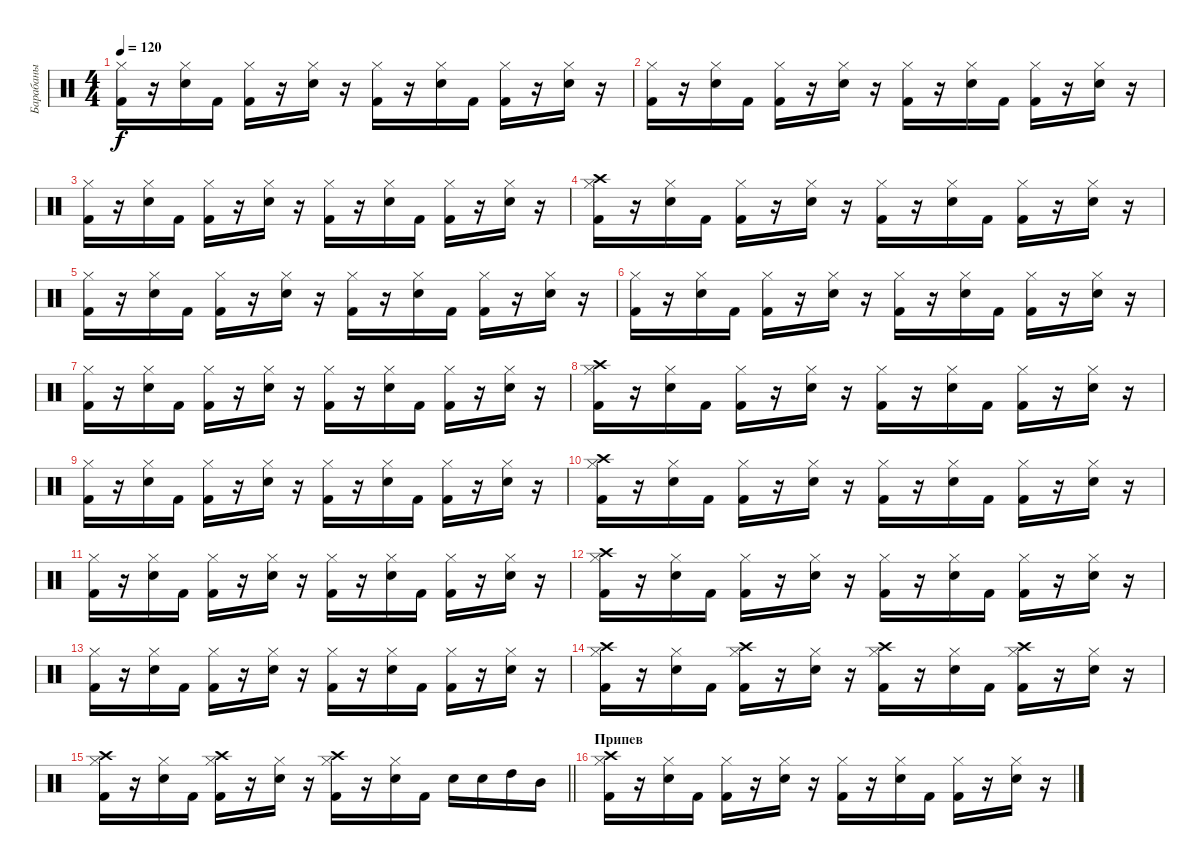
\track ("Барабаны" "Барабаны") {instrument percussion}
\staff {score}
\articulation defaults
\ts (4 4)
\tempo 120
\clef neutral
\ks c
("Hi-Hat (closed)" "Kick (hit) 2").16{dy f} r.16 ("Hi-Hat (closed)" "Electric Snare (hit)").16 "Kick (hit) 2".16 ("Hi-Hat (closed)" "Kick (hit) 2").16 r.16 ("Hi-Hat (closed)" "Electric Snare (hit)").16 r.16 ("Hi-Hat (closed)" "Kick (hit) 2").16 r.16 ("Hi-Hat (closed)" "Electric Snare (hit)").16 "Kick (hit) 2".16 ("Hi-Hat (closed)" "Kick (hit) 2").16 r.16 ("Hi-Hat (closed)" "Electric Snare (hit)").16 r.16 |
("Hi-Hat (closed)" "Kick (hit) 2").16 r.16 ("Hi-Hat (closed)" "Electric Snare (hit)").16 "Kick (hit) 2".16 ("Hi-Hat (closed)" "Kick (hit) 2").16 r.16 ("Hi-Hat (closed)" "Electric Snare (hit)").16 r.16 ("Hi-Hat (closed)" "Kick (hit) 2").16 r.16 ("Hi-Hat (closed)" "Electric Snare (hit)").16 "Kick (hit) 2".16 ("Hi-Hat (closed)" "Kick (hit) 2").16 r.16 ("Hi-Hat (closed)" "Electric Snare (hit)").16 r.16 |
("Hi-Hat (closed)" "Kick (hit) 2").16 r.16 ("Hi-Hat (closed)" "Electric Snare (hit)").16 "Kick (hit) 2".16 ("Hi-Hat (closed)" "Kick (hit) 2").16 r.16 ("Hi-Hat (closed)" "Electric Snare (hit)").16 r.16 ("Hi-Hat (closed)" "Kick (hit) 2").16 r.16 ("Hi-Hat (closed)" "Electric Snare (hit)").16 "Kick (hit) 2".16 ("Hi-Hat (closed)" "Kick (hit) 2").16 r.16 ("Hi-Hat (closed)" "Electric Snare (hit)").16 r.16 |
("Hi-Hat (closed)" "Kick (hit) 2" "Crash high (hit)").16 r.16 ("Hi-Hat (closed)" "Electric Snare (hit)").16 "Kick (hit) 2".16 ("Hi-Hat (closed)" "Kick (hit) 2").16 r.16 ("Hi-Hat (closed)" "Electric Snare (hit)").16 r.16 ("Hi-Hat (closed)" "Kick (hit) 2").16 r.16 ("Hi-Hat (closed)" "Electric Snare (hit)").16 "Kick (hit) 2".16 ("Hi-Hat (closed)" "Kick (hit) 2").16 r.16 ("Hi-Hat (closed)" "Electric Snare (hit)").16 r.16 |
("Hi-Hat (closed)" "Kick (hit) 2").16 r.16 ("Hi-Hat (closed)" "Electric Snare (hit)").16 "Kick (hit) 2".16 ("Hi-Hat (closed)" "Kick (hit) 2").16 r.16 ("Hi-Hat (closed)" "Electric Snare (hit)").16 r.16 ("Hi-Hat (closed)" "Kick (hit) 2").16 r.16 ("Hi-Hat (closed)" "Electric Snare (hit)").16 "Kick (hit) 2".16 ("Hi-Hat (closed)" "Kick (hit) 2").16 r.16 ("Hi-Hat (closed)" "Electric Snare (hit)").16 r.16 |
("Hi-Hat (closed)" "Kick (hit) 2").16 r.16 ("Hi-Hat (closed)" "Electric Snare (hit)").16 "Kick (hit) 2".16 ("Hi-Hat (closed)" "Kick (hit) 2").16 r.16 ("Hi-Hat (closed)" "Electric Snare (hit)").16 r.16 ("Hi-Hat (closed)" "Kick (hit) 2").16 r.16 ("Hi-Hat (closed)" "Electric Snare (hit)").16 "Kick (hit) 2".16 ("Hi-Hat (closed)" "Kick (hit) 2").16 r.16 ("Hi-Hat (closed)" "Electric Snare (hit)").16 r.16 |
("Hi-Hat (closed)" "Kick (hit) 2").16 r.16 ("Hi-Hat (closed)" "Electric Snare (hit)").16 "Kick (hit) 2".16 ("Hi-Hat (closed)" "Kick (hit) 2").16 r.16 ("Hi-Hat (closed)" "Electric Snare (hit)").16 r.16 ("Hi-Hat (closed)" "Kick (hit) 2").16 r.16 ("Hi-Hat (closed)" "Electric Snare (hit)").16 "Kick (hit) 2".16 ("Hi-Hat (closed)" "Kick (hit) 2").16 r.16 ("Hi-Hat (closed)" "Electric Snare (hit)").16 r.16 |
("Hi-Hat (closed)" "Kick (hit) 2" "Crash high (hit)").16 r.16 ("Hi-Hat (closed)" "Electric Snare (hit)").16 "Kick (hit) 2".16 ("Hi-Hat (closed)" "Kick (hit) 2").16 r.16 ("Hi-Hat (closed)" "Electric Snare (hit)").16 r.16 ("Hi-Hat (closed)" "Kick (hit) 2").16 r.16 ("Hi-Hat (closed)" "Electric Snare (hit)").16 "Kick (hit) 2".16 ("Hi-Hat (closed)" "Kick (hit) 2").16 r.16 ("Hi-Hat (closed)" "Electric Snare (hit)").16 r.16 |
("Hi-Hat (closed)" "Kick (hit) 2").16 r.16 ("Hi-Hat (closed)" "Electric Snare (hit)").16 "Kick (hit) 2".16 ("Hi-Hat (closed)" "Kick (hit) 2").16 r.16 ("Hi-Hat (closed)" "Electric Snare (hit)").16 r.16 ("Hi-Hat (closed)" "Kick (hit) 2").16 r.16 ("Hi-Hat (closed)" "Electric Snare (hit)").16 "Kick (hit) 2".16 ("Hi-Hat (closed)" "Kick (hit) 2").16 r.16 ("Hi-Hat (closed)" "Electric Snare (hit)").16 r.16 |
("Hi-Hat (closed)" "Kick (hit) 2" "Crash high (hit)").16 r.16 ("Hi-Hat (closed)" "Electric Snare (hit)").16 "Kick (hit) 2".16 ("Hi-Hat (closed)" "Kick (hit) 2").16 r.16 ("Hi-Hat (closed)" "Electric Snare (hit)").16 r.16 ("Hi-Hat (closed)" "Kick (hit) 2").16 r.16 ("Hi-Hat (closed)" "Electric Snare (hit)").16 "Kick (hit) 2".16 ("Hi-Hat (closed)" "Kick (hit) 2").16 r.16 ("Hi-Hat (closed)" "Electric Snare (hit)").16 r.16 |
("Hi-Hat (closed)" "Kick (hit) 2").16 r.16 ("Hi-Hat (closed)" "Electric Snare (hit)").16 "Kick (hit) 2".16 ("Hi-Hat (closed)" "Kick (hit) 2").16 r.16 ("Hi-Hat (closed)" "Electric Snare (hit)").16 r.16 ("Hi-Hat (closed)" "Kick (hit) 2").16 r.16 ("Hi-Hat (closed)" "Electric Snare (hit)").16 "Kick (hit) 2".16 ("Hi-Hat (closed)" "Kick (hit) 2").16 r.16 ("Hi-Hat (closed)" "Electric Snare (hit)").16 r.16 |
("Hi-Hat (closed)" "Kick (hit) 2" "Crash high (hit)").16 r.16 ("Hi-Hat (closed)" "Electric Snare (hit)").16 "Kick (hit) 2".16 ("Hi-Hat (closed)" "Kick (hit) 2").16 r.16 ("Hi-Hat (closed)" "Electric Snare (hit)").16 r.16 ("Hi-Hat (closed)" "Kick (hit) 2").16 r.16 ("Hi-Hat (closed)" "Electric Snare (hit)").16 "Kick (hit) 2".16 ("Hi-Hat (closed)" "Kick (hit) 2").16 r.16 ("Hi-Hat (closed)" "Electric Snare (hit)").16 r.16 |
("Hi-Hat (closed)" "Kick (hit) 2").16 r.16 ("Hi-Hat (closed)" "Electric Snare (hit)").16 "Kick (hit) 2".16 ("Hi-Hat (closed)" "Kick (hit) 2").16 r.16 ("Hi-Hat (closed)" "Electric Snare (hit)").16 r.16 ("Hi-Hat (closed)" "Kick (hit) 2").16 r.16 ("Hi-Hat (closed)" "Electric Snare (hit)").16 "Kick (hit) 2".16 ("Hi-Hat (closed)" "Kick (hit) 2").16 r.16 ("Hi-Hat (closed)" "Electric Snare (hit)").16 r.16 |
("Hi-Hat (closed)" "Kick (hit) 2" "Crash high (hit)").16 r.16 ("Hi-Hat (closed)" "Electric Snare (hit)").16 "Kick (hit) 2".16 ("Hi-Hat (closed)" "Kick (hit) 2" "Crash high (hit)").16 r.16 ("Hi-Hat (closed)" "Electric Snare (hit)").16 r.16 ("Hi-Hat (closed)" "Kick (hit) 2" "Crash high (hit)").16 r.16 ("Hi-Hat (closed)" "Electric Snare (hit)").16 "Kick (hit) 2".16 ("Hi-Hat (closed)" "Kick (hit) 2" "Crash high (hit)").16 r.16 ("Hi-Hat (closed)" "Electric Snare (hit)").16 r.16 |
\barLineRight lightlight
("Hi-Hat (closed)" "Kick (hit) 2" "Crash high (hit)").16 r.16 ("Hi-Hat (closed)" "Electric Snare (hit)").16 "Kick (hit) 2".16 ("Hi-Hat (closed)" "Kick (hit) 2" "Crash high (hit)").16 r.16 ("Hi-Hat (closed)" "Electric Snare (hit)").16 r.16 ("Hi-Hat (closed)" "Kick (hit) 2" "Crash high (hit)").16 r.16 ("Hi-Hat (closed)" "Electric Snare (hit)").16 "Kick (hit) 2".16 "Electric Snare (hit)".16 "Electric Snare (hit)".16 "High Tom (hit)".16 "Mid Tom (hit)".16 |
\section ("" "Припев")
("Hi-Hat (closed)" "Kick (hit) 2" "Crash high (hit)").16 r.16 ("Hi-Hat (closed)" "Electric Snare (hit)").16 "Kick (hit) 2".16 ("Hi-Hat (closed)" "Kick (hit) 2").16 r.16 ("Hi-Hat (closed)" "Electric Snare (hit)").16 r.16 ("Hi-Hat (closed)" "Kick (hit) 2").16 r.16 ("Hi-Hat (closed)" "Electric Snare (hit)").16 "Kick (hit) 2".16 ("Hi-Hat (closed)" "Kick (hit) 2").16 r.16 ("Hi-Hat (closed)" "Electric Snare (hit)").16 r.16
